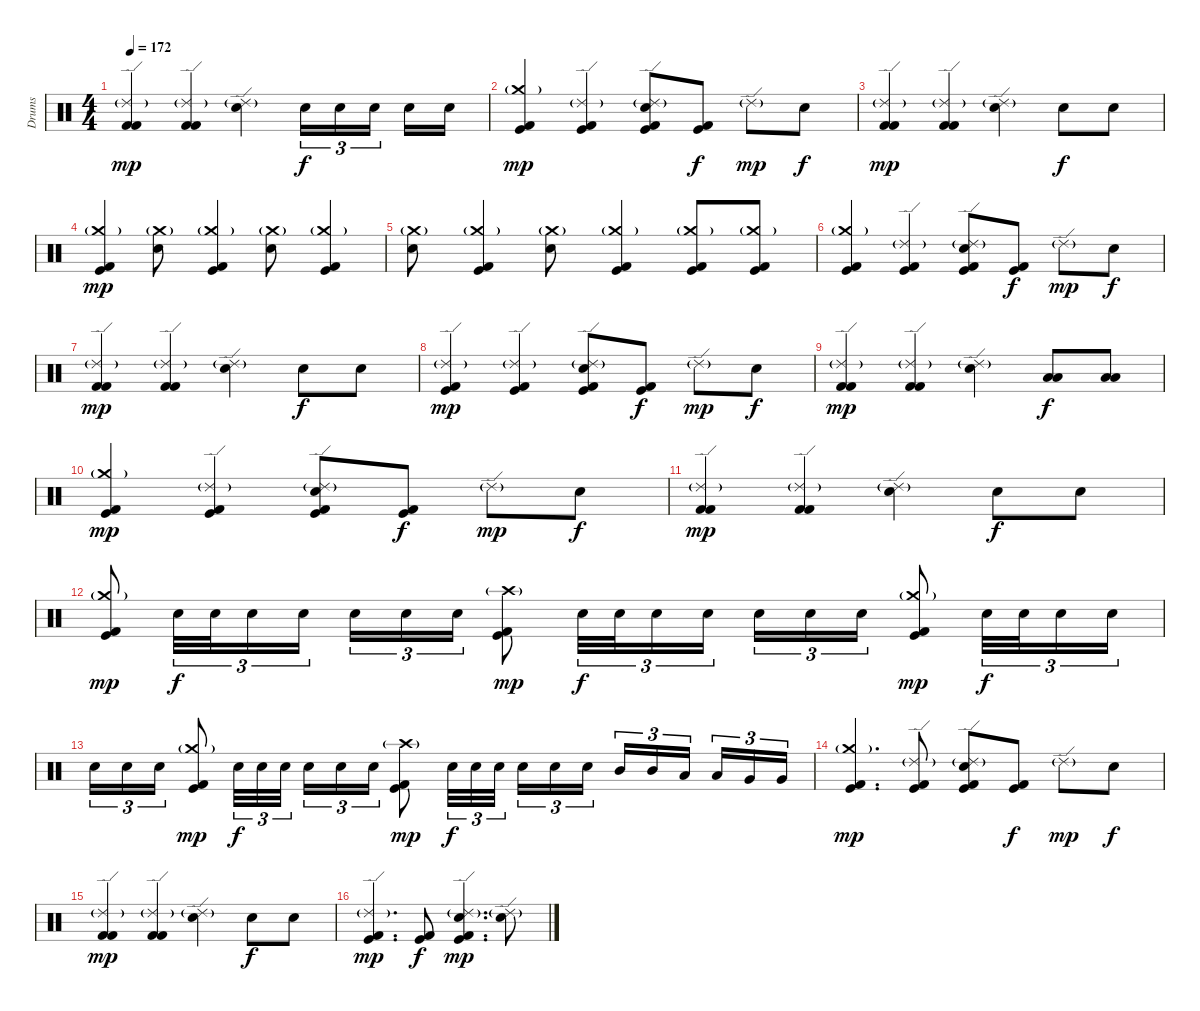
\track ("Drums" "Drums") {instrument percussion}
\staff {score}
\articulation defaults
\ts (4 4)
\tempo 172
\clef neutral
\ks c
("Ride (edge) 2"{g} "Kick (hit) 2" "Kick (hit) 2").4{dy mp} ("Ride (edge) 2"{g} "Kick (hit) 2" "Kick (hit) 2").4 ("Ride (edge) 2"{g} "Electric Snare (hit)").4 "Electric Snare (hit)".16{tu (3 2) dy f} "Electric Snare (hit)".16{tu (3 2)} "Electric Snare (hit)".16{tu (3 2) beam splitsecondary} "Electric Snare (hit)".16 "Electric Snare (hit)".16 |
("Crash medium (hit)"{g} "Kick (hit)" "Kick (hit) 2").4{dy mp} ("Ride (edge) 2"{g} "Kick (hit)" "Kick (hit) 2").4 ("Ride (edge) 2"{g} "Electric Snare (hit)" "Kick (hit)" "Kick (hit) 2").8 ("Kick (hit)" "Kick (hit) 2").8{dy f} "Ride (edge) 2"{g}.8{dy mp} "Electric Snare (hit)".8{dy f} |
("Ride (edge) 2"{g} "Kick (hit) 2" "Kick (hit) 2").4{dy mp} ("Ride (edge) 2"{g} "Kick (hit) 2" "Kick (hit) 2").4 ("Ride (edge) 2"{g} "Electric Snare (hit)").4 "Electric Snare (hit)".8{dy f} "Electric Snare (hit)".8 |
("Crash medium (hit)"{g} "Kick (hit)" "Kick (hit) 2").4{dy mp} ("Crash medium (hit)"{g} "Electric Snare (hit)").8 ("Crash medium (hit)"{g} "Kick (hit)" "Kick (hit) 2").4 ("Crash medium (hit)"{g} "Electric Snare (hit)").8 ("Crash medium (hit)"{g} "Kick (hit)" "Kick (hit) 2").4 |
("Crash medium (hit)"{g} "Electric Snare (hit)").8 ("Crash medium (hit)"{g} "Kick (hit)" "Kick (hit) 2").4 ("Crash medium (hit)"{g} "Electric Snare (hit)").8 ("Crash medium (hit)"{g} "Kick (hit)" "Kick (hit) 2").4 ("Crash medium (hit)"{g} "Kick (hit)" "Kick (hit) 2").8 ("Crash medium (hit)"{g} "Kick (hit)" "Kick (hit) 2").8 |
("Crash medium (hit)"{g} "Kick (hit)" "Kick (hit) 2").4 ("Ride (edge) 2"{g} "Kick (hit)" "Kick (hit) 2").4 ("Ride (edge) 2"{g} "Electric Snare (hit)" "Kick (hit)" "Kick (hit) 2").8 ("Kick (hit)" "Kick (hit) 2").8{dy f} "Ride (edge) 2"{g}.8{dy mp} "Electric Snare (hit)".8{dy f} |
("Ride (edge) 2"{g} "Kick (hit) 2" "Kick (hit) 2").4{dy mp} ("Ride (edge) 2"{g} "Kick (hit) 2" "Kick (hit) 2").4 ("Ride (edge) 2"{g} "Electric Snare (hit)").4 "Electric Snare (hit)".8{dy f} "Electric Snare (hit)".8 |
("Ride (edge) 2"{g} "Kick (hit)" "Kick (hit) 2").4{dy mp} ("Ride (edge) 2"{g} "Kick (hit)" "Kick (hit) 2").4 ("Ride (edge) 2"{g} "Electric Snare (hit)" "Kick (hit)" "Kick (hit) 2").8 ("Kick (hit)" "Kick (hit) 2").8{dy f} "Ride (edge) 2"{g}.8{dy mp} "Electric Snare (hit)".8{dy f} |
("Ride (edge) 2"{g} "Kick (hit) 2" "Kick (hit) 2").4{dy mp} ("Ride (edge) 2"{g} "Kick (hit) 2" "Kick (hit) 2").4 ("Ride (edge) 2"{g} "Electric Snare (hit)").4 ("Low Tom (hit)" "Low Floor Tom (hit)").8{dy f} ("Low Tom (hit)" "Low Floor Tom (hit)").8 |
("Crash medium (hit)"{g} "Kick (hit)" "Kick (hit) 2").4{dy mp} ("Ride (edge) 2"{g} "Kick (hit)" "Kick (hit) 2").4 ("Ride (edge) 2"{g} "Electric Snare (hit)" "Kick (hit)" "Kick (hit) 2").8 ("Kick (hit)" "Kick (hit) 2").8{dy f} "Ride (edge) 2"{g}.8{dy mp} "Electric Snare (hit)".8{dy f} |
("Ride (edge) 2"{g} "Kick (hit) 2" "Kick (hit) 2").4{dy mp} ("Ride (edge) 2"{g} "Kick (hit) 2" "Kick (hit) 2").4 ("Ride (edge) 2"{g} "Electric Snare (hit)").4 "Electric Snare (hit)".8{dy f} "Electric Snare (hit)".8 |
("Crash medium (hit)"{g} "Kick (hit)" "Kick (hit) 2").8{dy mp} "Electric Snare (hit)".32{tu (3 2) dy f} "Electric Snare (hit)".32{tu (3 2)} "Electric Snare (hit)".16{tu (3 2)} "Electric Snare (hit)".16{tu (3 2)} "Electric Snare (hit)".16{tu (3 2)} "Electric Snare (hit)".16{tu (3 2)} "Electric Snare (hit)".16{tu (3 2)} ("Crash high (hit)"{g} "Kick (hit)" "Kick (hit) 2").8{dy mp} "Electric Snare (hit)".32{tu (3 2) dy f} "Electric Snare (hit)".32{tu (3 2)} "Electric Snare (hit)".16{tu (3 2)} "Electric Snare (hit)".16{tu (3 2) beam splitsecondary} "Electric Snare (hit)".16{tu (3 2)} "Electric Snare (hit)".16{tu (3 2)} "Electric Snare (hit)".16{tu (3 2)} ("Crash medium (hit)"{g} "Kick (hit)" "Kick (hit) 2").8{dy mp} "Electric Snare (hit)".32{tu (3 2) dy f} "Electric Snare (hit)".32{tu (3 2)} "Electric Snare (hit)".16{tu (3 2)} "Electric Snare (hit)".16{tu (3 2)} |
"Electric Snare (hit)".16{tu (3 2)} "Electric Snare (hit)".16{tu (3 2)} "Electric Snare (hit)".16{tu (3 2)} ("Crash medium (hit)"{g} "Kick (hit)" "Kick (hit) 2").8{dy mp} "Electric Snare (hit)".32{tu (3 2) dy f} "Electric Snare (hit)".32{tu (3 2)} "Electric Snare (hit)".32{tu (3 2) beam splitsecondary} "Electric Snare (hit)".16{tu (3 2)} "Electric Snare (hit)".16{tu (3 2)} "Electric Snare (hit)".16{tu (3 2)} ("Crash high (hit)"{g} "Kick (hit)" "Kick (hit) 2").8{dy mp} "Electric Snare (hit)".32{tu (3 2) dy f} "Electric Snare (hit)".32{tu (3 2)} "Electric Snare (hit)".32{tu (3 2) beam splitsecondary} "Electric Snare (hit)".16{tu (3 2)} "Electric Snare (hit)".16{tu (3 2)} "Electric Snare (hit)".16{tu (3 2)} "Mid Tom (hit)".16{tu (3 2)} "Mid Tom (hit)".16{tu (3 2)} "Low Tom (hit)".16{tu (3 2) beam splitsecondary} "Low Tom (hit)".16{tu (3 2)} "Very Low Tom (hit)".16{tu (3 2)} "Very Low Tom (hit)".16{tu (3 2)} |
("Crash medium (hit)"{g} "Kick (hit)" "Kick (hit) 2").4{d dy mp} ("Ride (edge) 2"{g} "Kick (hit)" "Kick (hit) 2").8 ("Ride (edge) 2"{g} "Electric Snare (hit)" "Kick (hit)" "Kick (hit) 2").8 ("Kick (hit)" "Kick (hit) 2").8{dy f} "Ride (edge) 2"{g}.8{dy mp} "Electric Snare (hit)".8{dy f} |
("Ride (edge) 2"{g} "Kick (hit) 2" "Kick (hit) 2").4{dy mp} ("Ride (edge) 2"{g} "Kick (hit) 2" "Kick (hit) 2").4 ("Ride (edge) 2"{g} "Electric Snare (hit)").4 "Electric Snare (hit)".8{dy f} "Electric Snare (hit)".8 |
("Ride (edge) 2"{g} "Kick (hit)" "Kick (hit) 2").4{d dy mp} ("Kick (hit)" "Kick (hit) 2").8{dy f} ("Ride (edge) 2"{g} "Electric Snare (hit)" "Kick (hit)" "Kick (hit) 2").4{d dy mp} ("Ride (edge) 2"{g} "Electric Snare (hit)").8
